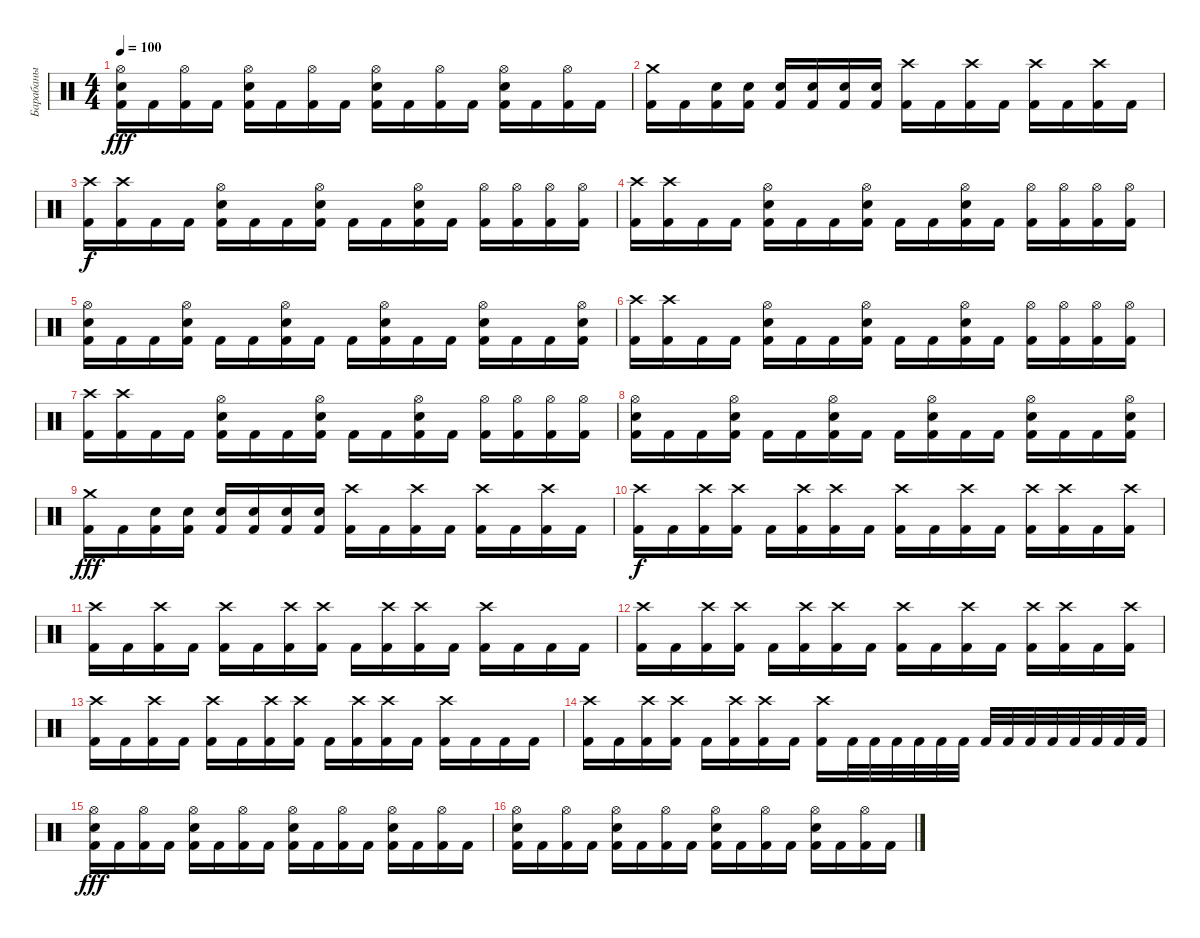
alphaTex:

\track ("Барабаны" "Барабаны") {instrument percussion}
\staff {score}
\articulation defaults
\ts (4 4)
\tempo 100
\clef neutral
\ks c
("Hi-Hat (open)" "Electric Snare (hit)" "Kick (hit) 2").16{dy fff} "Kick (hit) 2".16 ("Hi-Hat (open)" "Kick (hit) 2").16 "Kick (hit) 2".16 ("Hi-Hat (open)" "Electric Snare (hit)" "Kick (hit) 2").16 "Kick (hit) 2".16 ("Hi-Hat (open)" "Kick (hit) 2").16 "Kick (hit) 2".16 ("Hi-Hat (open)" "Electric Snare (hit)" "Kick (hit) 2").16 "Kick (hit) 2".16 ("Hi-Hat (open)" "Kick (hit) 2").16 "Kick (hit) 2".16 ("Hi-Hat (open)" "Electric Snare (hit)" "Kick (hit) 2").16 "Kick (hit) 2".16 ("Hi-Hat (open)" "Kick (hit) 2").16 "Kick (hit) 2".16 |
("Crash medium (hit)" "Kick (hit) 2").16 "Kick (hit) 2".16 ("Electric Snare (hit)" "Kick (hit) 2").16 ("Electric Snare (hit)" "Kick (hit) 2").16 ("Electric Snare (hit)" "Kick (hit) 2").16 ("Electric Snare (hit)" "Kick (hit) 2").16 ("Electric Snare (hit)" "Kick (hit) 2").16 ("Electric Snare (hit)" "Kick (hit) 2").16 ("Crash high (hit)" "Kick (hit) 2").16 "Kick (hit) 2".16 ("Crash high (hit)" "Kick (hit) 2").16 "Kick (hit) 2".16 ("Crash high (hit)" "Kick (hit) 2").16 "Kick (hit) 2".16 ("Crash high (hit)" "Kick (hit) 2").16 "Kick (hit) 2".16 |
("Crash high (hit)" "Kick (hit) 2").16{dy f} ("Crash high (hit)" "Kick (hit) 2").16 "Kick (hit) 2".16 "Kick (hit) 2".16 ("Hi-Hat (open)" "Electric Snare (hit)" "Kick (hit) 2").16 "Kick (hit) 2".16 "Kick (hit) 2".16 ("Hi-Hat (open)" "Electric Snare (hit)" "Kick (hit) 2").16 "Kick (hit) 2".16 "Kick (hit) 2".16 ("Hi-Hat (open)" "Electric Snare (hit)" "Kick (hit) 2").16 "Kick (hit) 2".16 ("Hi-Hat (open)" "Kick (hit) 2").16 ("Hi-Hat (open)" "Kick (hit) 2").16 ("Hi-Hat (open)" "Kick (hit) 2").16 ("Hi-Hat (open)" "Kick (hit) 2").16 |
("Crash high (hit)" "Kick (hit) 2").16 ("Crash high (hit)" "Kick (hit) 2").16 "Kick (hit) 2".16 "Kick (hit) 2".16 ("Hi-Hat (open)" "Electric Snare (hit)" "Kick (hit) 2").16 "Kick (hit) 2".16 "Kick (hit) 2".16 ("Hi-Hat (open)" "Electric Snare (hit)" "Kick (hit) 2").16 "Kick (hit) 2".16 "Kick (hit) 2".16 ("Hi-Hat (open)" "Electric Snare (hit)" "Kick (hit) 2").16 "Kick (hit) 2".16 ("Hi-Hat (open)" "Kick (hit) 2").16 ("Hi-Hat (open)" "Kick (hit) 2").16 ("Hi-Hat (open)" "Kick (hit) 2").16 ("Hi-Hat (open)" "Kick (hit) 2").16 |
("Hi-Hat (open)" "Electric Snare (hit)" "Kick (hit) 2").16 "Kick (hit) 2".16 "Kick (hit) 2".16 ("Hi-Hat (open)" "Electric Snare (hit)" "Kick (hit) 2").16 "Kick (hit) 2".16 "Kick (hit) 2".16 ("Hi-Hat (open)" "Electric Snare (hit)" "Kick (hit) 2").16 "Kick (hit) 2".16 "Kick (hit) 2".16 ("Hi-Hat (open)" "Electric Snare (hit)" "Kick (hit) 2").16 "Kick (hit) 2".16 "Kick (hit) 2".16 ("Hi-Hat (open)" "Electric Snare (hit)" "Kick (hit) 2").16 "Kick (hit) 2".16 "Kick (hit) 2".16 ("Hi-Hat (open)" "Electric Snare (hit)" "Kick (hit) 2").16 |
("Crash high (hit)" "Kick (hit) 2").16 ("Crash high (hit)" "Kick (hit) 2").16 "Kick (hit) 2".16 "Kick (hit) 2".16 ("Hi-Hat (open)" "Electric Snare (hit)" "Kick (hit) 2").16 "Kick (hit) 2".16 "Kick (hit) 2".16 ("Hi-Hat (open)" "Electric Snare (hit)" "Kick (hit) 2").16 "Kick (hit) 2".16 "Kick (hit) 2".16 ("Hi-Hat (open)" "Electric Snare (hit)" "Kick (hit) 2").16 "Kick (hit) 2".16 ("Hi-Hat (open)" "Kick (hit) 2").16 ("Hi-Hat (open)" "Kick (hit) 2").16 ("Hi-Hat (open)" "Kick (hit) 2").16 ("Hi-Hat (open)" "Kick (hit) 2").16 |
("Crash high (hit)" "Kick (hit) 2").16 ("Crash high (hit)" "Kick (hit) 2").16 "Kick (hit) 2".16 "Kick (hit) 2".16 ("Hi-Hat (open)" "Electric Snare (hit)" "Kick (hit) 2").16 "Kick (hit) 2".16 "Kick (hit) 2".16 ("Hi-Hat (open)" "Electric Snare (hit)" "Kick (hit) 2").16 "Kick (hit) 2".16 "Kick (hit) 2".16 ("Hi-Hat (open)" "Electric Snare (hit)" "Kick (hit) 2").16 "Kick (hit) 2".16 ("Hi-Hat (open)" "Kick (hit) 2").16 ("Hi-Hat (open)" "Kick (hit) 2").16 ("Hi-Hat (open)" "Kick (hit) 2").16 ("Hi-Hat (open)" "Kick (hit) 2").16 |
("Hi-Hat (open)" "Electric Snare (hit)" "Kick (hit) 2").16 "Kick (hit) 2".16 "Kick (hit) 2".16 ("Hi-Hat (open)" "Electric Snare (hit)" "Kick (hit) 2").16 "Kick (hit) 2".16 "Kick (hit) 2".16 ("Hi-Hat (open)" "Electric Snare (hit)" "Kick (hit) 2").16 "Kick (hit) 2".16 "Kick (hit) 2".16 ("Hi-Hat (open)" "Electric Snare (hit)" "Kick (hit) 2").16 "Kick (hit) 2".16 "Kick (hit) 2".16 ("Hi-Hat (open)" "Electric Snare (hit)" "Kick (hit) 2").16 "Kick (hit) 2".16 "Kick (hit) 2".16 ("Hi-Hat (open)" "Electric Snare (hit)" "Kick (hit) 2").16 |
("Crash medium (hit)" "Kick (hit) 2").16{dy fff} "Kick (hit) 2".16 ("Electric Snare (hit)" "Kick (hit) 2").16 ("Electric Snare (hit)" "Kick (hit) 2").16 ("Electric Snare (hit)" "Kick (hit) 2").16 ("Electric Snare (hit)" "Kick (hit) 2").16 ("Electric Snare (hit)" "Kick (hit) 2").16 ("Electric Snare (hit)" "Kick (hit) 2").16 ("Crash high (hit)" "Kick (hit) 2").16 "Kick (hit) 2".16 ("Crash high (hit)" "Kick (hit) 2").16 "Kick (hit) 2".16 ("Crash high (hit)" "Kick (hit) 2").16 "Kick (hit) 2".16 ("Crash high (hit)" "Kick (hit) 2").16 "Kick (hit) 2".16 |
("Crash high (hit)" "Kick (hit) 2").16{dy f} "Kick (hit) 2".16 ("Crash high (hit)" "Kick (hit) 2").16 ("Crash high (hit)" "Kick (hit) 2").16 "Kick (hit) 2".16 ("Crash high (hit)" "Kick (hit) 2").16 ("Crash high (hit)" "Kick (hit) 2").16 "Kick (hit) 2".16 ("Crash high (hit)" "Kick (hit) 2").16 "Kick (hit) 2".16 ("Crash high (hit)" "Kick (hit) 2").16 "Kick (hit) 2".16 ("Crash high (hit)" "Kick (hit) 2").16 ("Crash high (hit)" "Kick (hit) 2").16 "Kick (hit) 2".16 ("Crash high (hit)" "Kick (hit) 2").16 |
("Crash high (hit)" "Kick (hit) 2").16 "Kick (hit) 2".16 ("Crash high (hit)" "Kick (hit) 2").16 "Kick (hit) 2".16 ("Crash high (hit)" "Kick (hit) 2").16 "Kick (hit) 2".16 ("Crash high (hit)" "Kick (hit) 2").16 ("Crash high (hit)" "Kick (hit) 2").16 "Kick (hit) 2".16 ("Crash high (hit)" "Kick (hit) 2").16 ("Crash high (hit)" "Kick (hit) 2").16 "Kick (hit) 2".16 ("Crash high (hit)" "Kick (hit) 2").16 "Kick (hit) 2".16 "Kick (hit) 2".16 "Kick (hit) 2".16 |
("Crash high (hit)" "Kick (hit) 2").16 "Kick (hit) 2".16 ("Crash high (hit)" "Kick (hit) 2").16 ("Crash high (hit)" "Kick (hit) 2").16 "Kick (hit) 2".16 ("Crash high (hit)" "Kick (hit) 2").16 ("Crash high (hit)" "Kick (hit) 2").16 "Kick (hit) 2".16 ("Crash high (hit)" "Kick (hit) 2").16 "Kick (hit) 2".16 ("Crash high (hit)" "Kick (hit) 2").16 "Kick (hit) 2".16 ("Crash high (hit)" "Kick (hit) 2").16 ("Crash high (hit)" "Kick (hit) 2").16 "Kick (hit) 2".16 ("Crash high (hit)" "Kick (hit) 2").16 |
("Crash high (hit)" "Kick (hit) 2").16 "Kick (hit) 2".16 ("Crash high (hit)" "Kick (hit) 2").16 "Kick (hit) 2".16 ("Crash high (hit)" "Kick (hit) 2").16 "Kick (hit) 2".16 ("Crash high (hit)" "Kick (hit) 2").16 ("Crash high (hit)" "Kick (hit) 2").16 "Kick (hit) 2".16 ("Crash high (hit)" "Kick (hit) 2").16 ("Crash high (hit)" "Kick (hit) 2").16 "Kick (hit) 2".16 ("Crash high (hit)" "Kick (hit) 2").16 "Kick (hit) 2".16 "Kick (hit) 2".16 "Kick (hit) 2".16 |
("Crash high (hit)" "Kick (hit) 2").16 "Kick (hit) 2".16 ("Crash high (hit)" "Kick (hit) 2").16 ("Crash high (hit)" "Kick (hit) 2").16 "Kick (hit) 2".16 ("Crash high (hit)" "Kick (hit) 2").16 ("Crash high (hit)" "Kick (hit) 2").16 "Kick (hit) 2".16 ("Crash high (hit)" "Kick (hit) 2").16 "Kick (hit) 2".32 "Kick (hit) 2".32 "Kick (hit) 2".32 "Kick (hit) 2".32 "Kick (hit) 2".32 "Kick (hit) 2".32 "Kick (hit) 2".32 "Kick (hit) 2".32 "Kick (hit) 2".32 "Kick (hit) 2".32 "Kick (hit) 2".32 "Kick (hit) 2".32 "Kick (hit) 2".32 "Kick (hit) 2".32 |
("Hi-Hat (open)" "Electric Snare (hit)" "Kick (hit) 2").16{dy fff} "Kick (hit) 2".16 ("Hi-Hat (open)" "Kick (hit) 2").16 "Kick (hit) 2".16 ("Hi-Hat (open)" "Electric Snare (hit)" "Kick (hit) 2").16 "Kick (hit) 2".16 ("Hi-Hat (open)" "Kick (hit) 2").16 "Kick (hit) 2".16 ("Hi-Hat (open)" "Electric Snare (hit)" "Kick (hit) 2").16 "Kick (hit) 2".16 ("Hi-Hat (open)" "Kick (hit) 2").16 "Kick (hit) 2".16 ("Hi-Hat (open)" "Electric Snare (hit)" "Kick (hit) 2").16 "Kick (hit) 2".16 ("Hi-Hat (open)" "Kick (hit) 2").16 "Kick (hit) 2".16 |
("Hi-Hat (open)" "Electric Snare (hit)" "Kick (hit) 2").16 "Kick (hit) 2".16 ("Hi-Hat (open)" "Kick (hit) 2").16 "Kick (hit) 2".16 ("Hi-Hat (open)" "Electric Snare (hit)" "Kick (hit) 2").16 "Kick (hit) 2".16 ("Hi-Hat (open)" "Kick (hit) 2").16 "Kick (hit) 2".16 ("Hi-Hat (open)" "Electric Snare (hit)" "Kick (hit) 2").16 "Kick (hit) 2".16 ("Hi-Hat (open)" "Kick (hit) 2").16 "Kick (hit) 2".16 ("Hi-Hat (open)" "Electric Snare (hit)" "Kick (hit) 2").16 "Kick (hit) 2".16 ("Hi-Hat (open)" "Kick (hit) 2").16 "Kick (hit) 2".16
